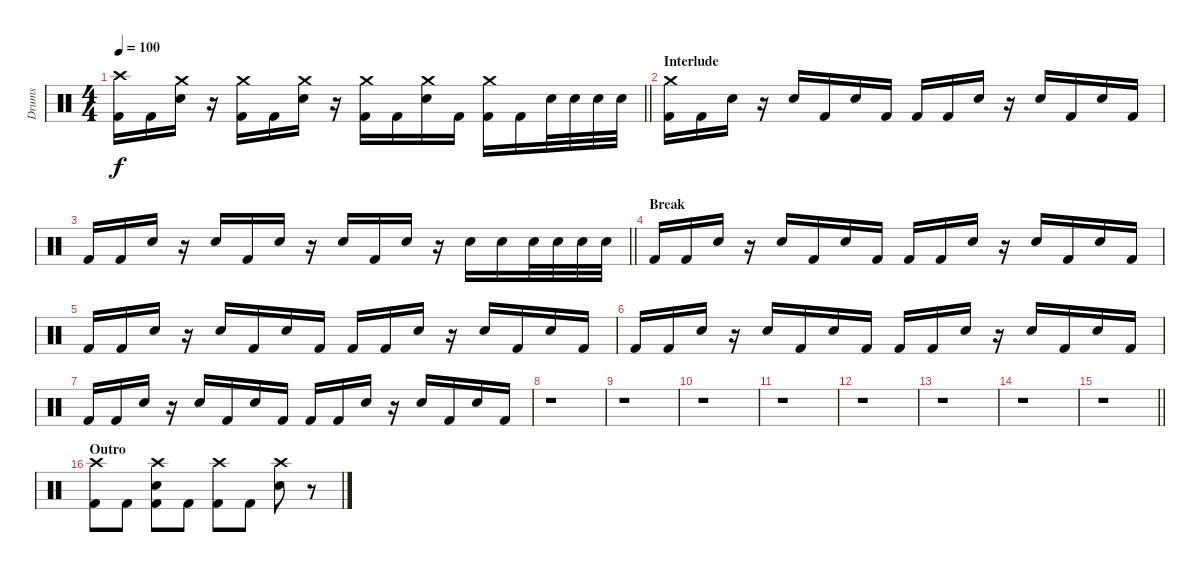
\track ("Drums" "Drums") {instrument percussion}
\staff {score}
\articulation defaults
\ts (4 4)
\tempo 100
\clef neutral
\barLineRight lightlight
\ks c
("Crash high (hit)" "Kick (hit) 2").16{dy f} "Kick (hit) 2".16 ("Crash medium (hit)" "Electric Snare (hit)").16 r.16 ("Crash medium (hit)" "Kick (hit) 2").16 "Kick (hit) 2".16 ("Crash medium (hit)" "Electric Snare (hit)").16 r.16 ("Crash medium (hit)" "Kick (hit) 2").16 "Kick (hit) 2".16 ("Crash medium (hit)" "Electric Snare (hit)").16 "Kick (hit) 2".16 ("Crash medium (hit)" "Kick (hit) 2").16 "Kick (hit) 2".16 "Electric Snare (hit)".32 "Electric Snare (hit)".32 "Electric Snare (hit)".32 "Electric Snare (hit)".32 |
\section ("" "Interlude")
("Crash medium (hit)" "Kick (hit) 2").16 "Kick (hit) 2".16 "Electric Snare (hit)".16 r.16 "Electric Snare (hit)".16 "Kick (hit) 2".16 "Electric Snare (hit)".16 "Kick (hit) 2".16 "Kick (hit) 2".16 "Kick (hit) 2".16 "Electric Snare (hit)".16 r.16 "Electric Snare (hit)".16 "Kick (hit) 2".16 "Electric Snare (hit)".16 "Kick (hit) 2".16 |
\barLineRight lightlight "Kick (hit) 2".16 "Kick (hit) 2".16 "Electric Snare (hit)".16
r.16 "Electric Snare (hit)".16 "Kick (hit) 2".16 "Electric Snare (hit)".16 r.16 "Electric Snare (hit)".16 "Kick (hit) 2".16 "Electric Snare (hit)".16 r.16 "Electric Snare (hit)".16 "Electric Snare (hit)".16 "Electric Snare (hit)".32 "Electric Snare (hit)".32 "Electric Snare (hit)".32 "Electric Snare (hit)".32 |
\section ("" "Break")
"Kick (hit) 2".16{volume 0} "Kick (hit) 2".16 "Electric Snare (hit)".16 r.16 "Electric Snare (hit)".16 "Kick (hit) 2".16 "Electric Snare (hit)".16 "Kick (hit) 2".16 "Kick (hit) 2".16 "Kick (hit) 2".16 "Electric Snare (hit)".16 r.16 "Electric Snare (hit)".16 "Kick (hit) 2".16 "Electric Snare (hit)".16 "Kick (hit) 2".16 |
"Kick (hit) 2".16 "Kick (hit) 2".16 "Electric Snare (hit)".16 r.16 "Electric Snare (hit)".16 "Kick (hit) 2".16 "Electric Snare (hit)".16 "Kick (hit) 2".16 "Kick (hit) 2".16 "Kick (hit) 2".16 "Electric Snare (hit)".16 r.16 "Electric Snare (hit)".16 "Kick (hit) 2".16 "Electric Snare (hit)".16 "Kick (hit) 2".16 |
"Kick (hit) 2".16 "Kick (hit) 2".16 "Electric Snare (hit)".16 r.16 "Electric Snare (hit)".16 "Kick (hit) 2".16 "Electric Snare (hit)".16 "Kick (hit) 2".16 "Kick (hit) 2".16 "Kick (hit) 2".16 "Electric Snare (hit)".16 r.16 "Electric Snare (hit)".16 "Kick (hit) 2".16 "Electric Snare (hit)".16 "Kick (hit) 2".16 |
"Kick (hit) 2".16 "Kick (hit) 2".16 "Electric Snare (hit)".16 r.16 "Electric Snare (hit)".16 "Kick (hit) 2".16 "Electric Snare (hit)".16 "Kick (hit) 2".16 "Kick (hit) 2".16 "Kick (hit) 2".16 "Electric Snare (hit)".16 r.16 "Electric Snare (hit)".16 "Kick (hit) 2".16 "Electric Snare (hit)".16 "Kick (hit) 2".16 |
r.1 |
r.1 |
r.1 |
r.1 |
r.1 |
r.1 |
r.1 |
\barLineRight lightlight
r.1 |
\section ("" "Outro")
("Crash high (hit)" "Kick (hit) 2").8{volume 13} "Kick (hit) 2".8 ("Crash high (hit)" "Electric Snare (hit)" "Kick (hit) 2").8 "Kick (hit) 2".8 ("Crash high (hit)" "Kick (hit) 2").8 "Kick (hit) 2".8 ("Crash high (hit)" "Electric Snare (hit)").8 r.8
